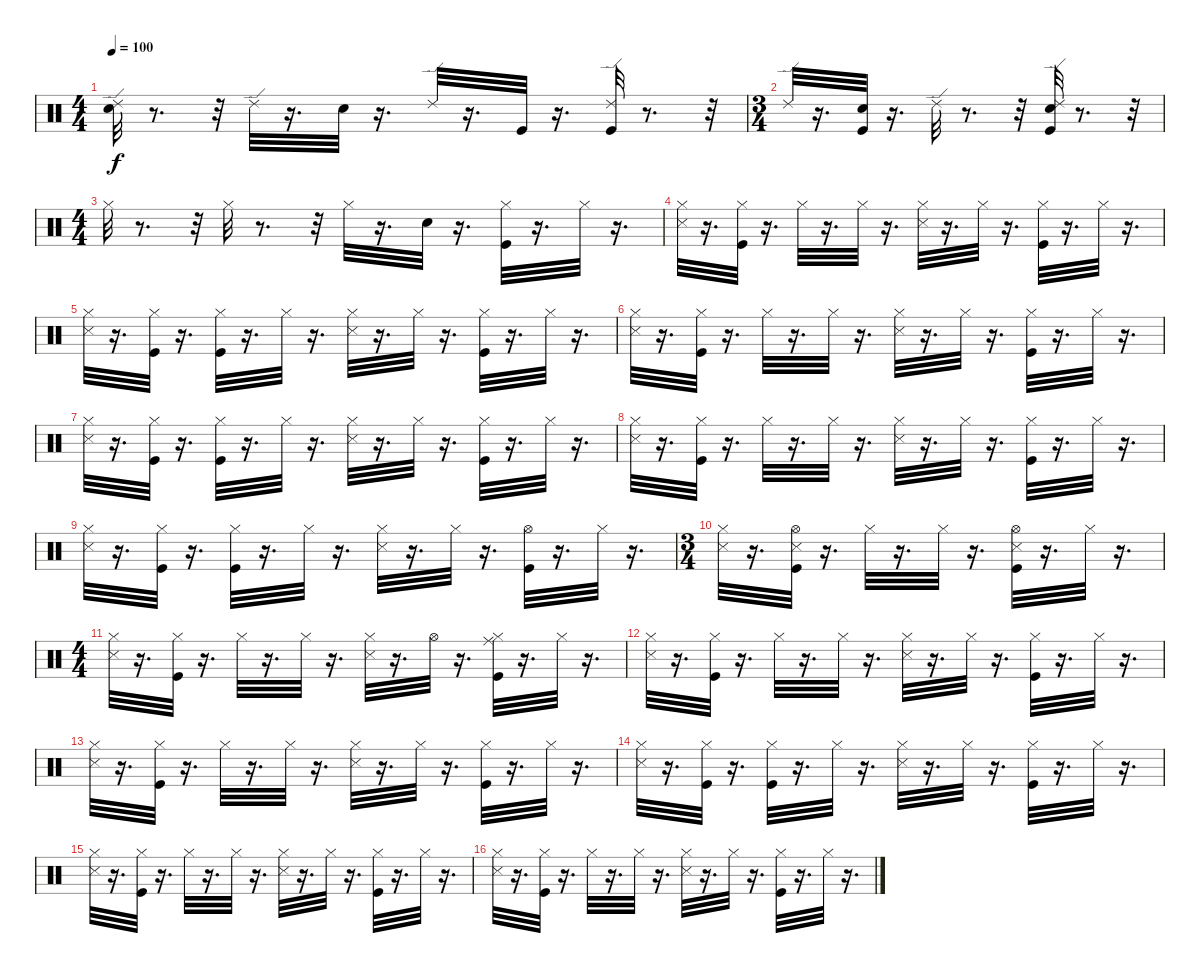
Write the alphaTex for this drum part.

\track "" {instrument percussion}
\staff {score}
\articulation defaults
\ts (4 4)
\tempo 100
\clef neutral
\ks c
("Snare (hit) 2" "Ride (edge) 2").32{dy f} r.8{d} r.32 "Ride (edge) 2".32 r.16{d} "Snare (hit) 2".32 r.16{d} "Ride (edge) 2".32 r.16{d} "Kick (hit)".32 r.16{d} ("Kick (hit)" "Ride (edge) 2").32 r.8{d} r.32 |
\ts (3 4)
"Ride (edge) 2".32 r.16{d} ("Snare (hit) 2" "Kick (hit)").32 r.16{d} "Ride (edge) 2".32 r.8{d} r.32 ("Snare (hit) 2" "Kick (hit)" "Ride (edge) 2").32 r.8{d} r.32 |
\ts (4 4)
"Hi-Hat (closed)".32 r.8{d} r.32 "Hi-Hat (closed)".32 r.8{d} r.32 "Hi-Hat (closed)".32 r.16{d} "Snare (hit) 2".32 r.16{d} ("Kick (hit)" "Hi-Hat (closed)").32 r.16{d} "Hi-Hat (closed)".32 r.16{d} |
("Snare (side stick) 3" "Hi-Hat (closed)").32 r.16{d} ("Kick (hit)" "Hi-Hat (closed)").32 r.16{d} "Hi-Hat (closed)".32 r.16{d} "Hi-Hat (closed)".32 r.16{d} ("Snare (side stick) 3" "Hi-Hat (closed)").32 r.16{d} "Hi-Hat (closed)".32 r.16{d} ("Kick (hit)" "Hi-Hat (closed)").32 r.16{d} "Hi-Hat (closed)".32 r.16{d} |
("Snare (side stick) 3" "Hi-Hat (closed)").32 r.16{d} ("Hi-Hat (closed)" "Kick (hit)").32 r.16{d} ("Hi-Hat (closed)" "Kick (hit)").32 r.16{d} "Hi-Hat (closed)".32 r.16{d} ("Snare (side stick) 3" "Hi-Hat (closed)").32 r.16{d} "Hi-Hat (closed)".32 r.16{d} ("Kick (hit)" "Hi-Hat (closed)").32 r.16{d} "Hi-Hat (closed)".32 r.16{d} |
("Snare (side stick) 3" "Hi-Hat (closed)").32 r.16{d} ("Kick (hit)" "Hi-Hat (closed)").32 r.16{d} "Hi-Hat (closed)".32 r.16{d} "Hi-Hat (closed)".32 r.16{d} ("Snare (side stick) 3" "Hi-Hat (closed)").32 r.16{d} "Hi-Hat (closed)".32 r.16{d} ("Kick (hit)" "Hi-Hat (closed)").32 r.16{d} "Hi-Hat (closed)".32 r.16{d} |
("Snare (side stick) 3" "Hi-Hat (closed)").32 r.16{d} ("Hi-Hat (closed)" "Kick (hit)").32 r.16{d} ("Hi-Hat (closed)" "Kick (hit)").32 r.16{d} "Hi-Hat (closed)".32 r.16{d} ("Snare (side stick) 3" "Hi-Hat (closed)").32 r.16{d} "Hi-Hat (closed)".32 r.16{d} ("Kick (hit)" "Hi-Hat (closed)").32 r.16{d} "Hi-Hat (closed)".32 r.16{d} |
("Snare (side stick) 3" "Hi-Hat (closed)").32 r.16{d} ("Kick (hit)" "Hi-Hat (closed)").32 r.16{d} "Hi-Hat (closed)".32 r.16{d} "Hi-Hat (closed)".32 r.16{d} ("Snare (side stick) 3" "Hi-Hat (closed)").32 r.16{d} "Hi-Hat (closed)".32 r.16{d} ("Kick (hit)" "Hi-Hat (closed)").32 r.16{d} "Hi-Hat (closed)".32 r.16{d} |
("Snare (side stick) 3" "Hi-Hat (closed)").32 r.16{d} ("Hi-Hat (closed)" "Kick (hit)").32 r.16{d} ("Hi-Hat (closed)" "Kick (hit)").32 r.16{d} "Hi-Hat (closed)".32 r.16{d} ("Snare (side stick) 3" "Hi-Hat (closed)").32 r.16{d} "Hi-Hat (closed)".32 r.16{d} ("Kick (hit)" "Hi-Hat (open)").32 r.16{d} "Hi-Hat (closed)".32 r.16{d} |
\ts (3 4)
("Snare (side stick) 3" "Hi-Hat (closed)").32 r.16{d} ("Snare (side stick) 3" "Kick (hit)" "Hi-Hat (open)").32 r.16{d} "Hi-Hat (closed)".32 r.16{d} "Hi-Hat (closed)".32 r.16{d} ("Snare (side stick) 3" "Kick (hit)" "Hi-Hat (open)").32 r.16{d} "Hi-Hat (closed)".32 r.16{d} |
\ts (4 4)
("Snare (side stick) 3" "Hi-Hat (closed)").32 r.16{d} ("Kick (hit)" "Hi-Hat (closed)").32 r.16{d} "Hi-Hat (closed)".32 r.16{d} "Hi-Hat (closed)".32 r.16{d} ("Snare (side stick) 3" "Hi-Hat (closed)").32 r.16{d} "Hi-Hat (open)".32 r.16{d} ("Ride (middle)" "Kick (hit)" "Hi-Hat (closed)").32 r.16{d} "Hi-Hat (closed)".32 r.16{d} |
("Snare (side stick) 3" "Hi-Hat (closed)").32 r.16{d} ("Hi-Hat (closed)" "Kick (hit)").32 r.16{d} "Hi-Hat (closed)".32 r.16{d} "Hi-Hat (closed)".32 r.16{d} ("Snare (side stick) 3" "Hi-Hat (closed)").32 r.16{d} "Hi-Hat (closed)".32 r.16{d} ("Kick (hit)" "Hi-Hat (closed)").32 r.16{d} "Hi-Hat (closed)".32 r.16{d} |
("Snare (side stick) 3" "Hi-Hat (closed)").32 r.16{d} ("Kick (hit)" "Hi-Hat (closed)").32 r.16{d} "Hi-Hat (closed)".32 r.16{d} "Hi-Hat (closed)".32 r.16{d} ("Snare (side stick) 3" "Hi-Hat (closed)").32 r.16{d} "Hi-Hat (closed)".32 r.16{d} ("Kick (hit)" "Hi-Hat (closed)").32 r.16{d} "Hi-Hat (closed)".32 r.16{d} |
("Snare (side stick) 3" "Hi-Hat (closed)").32 r.16{d} ("Hi-Hat (closed)" "Kick (hit)").32 r.16{d} ("Hi-Hat (closed)" "Kick (hit)").32 r.16{d} "Hi-Hat (closed)".32 r.16{d} ("Snare (side stick) 3" "Hi-Hat (closed)").32 r.16{d} "Hi-Hat (closed)".32 r.16{d} ("Kick (hit)" "Hi-Hat (closed)").32 r.16{d} "Hi-Hat (closed)".32 r.16{d} |
("Snare (side stick) 3" "Hi-Hat (closed)").32 r.16{d} ("Kick (hit)" "Hi-Hat (closed)").32 r.16{d} "Hi-Hat (closed)".32 r.16{d} "Hi-Hat (closed)".32 r.16{d} ("Snare (side stick) 3" "Hi-Hat (closed)").32 r.16{d} "Hi-Hat (closed)".32 r.16{d} ("Kick (hit)" "Hi-Hat (closed)").32 r.16{d} "Hi-Hat (closed)".32 r.16{d} |
("Snare (side stick) 3" "Hi-Hat (closed)").32 r.16{d} ("Hi-Hat (closed)" "Kick (hit)").32 r.16{d} "Hi-Hat (closed)".32 r.16{d} "Hi-Hat (closed)".32 r.16{d} ("Snare (side stick) 3" "Hi-Hat (closed)").32 r.16{d} "Hi-Hat (closed)".32 r.16{d} ("Kick (hit)" "Hi-Hat (closed)").32 r.16{d} "Hi-Hat (closed)".32 r.16{d}
